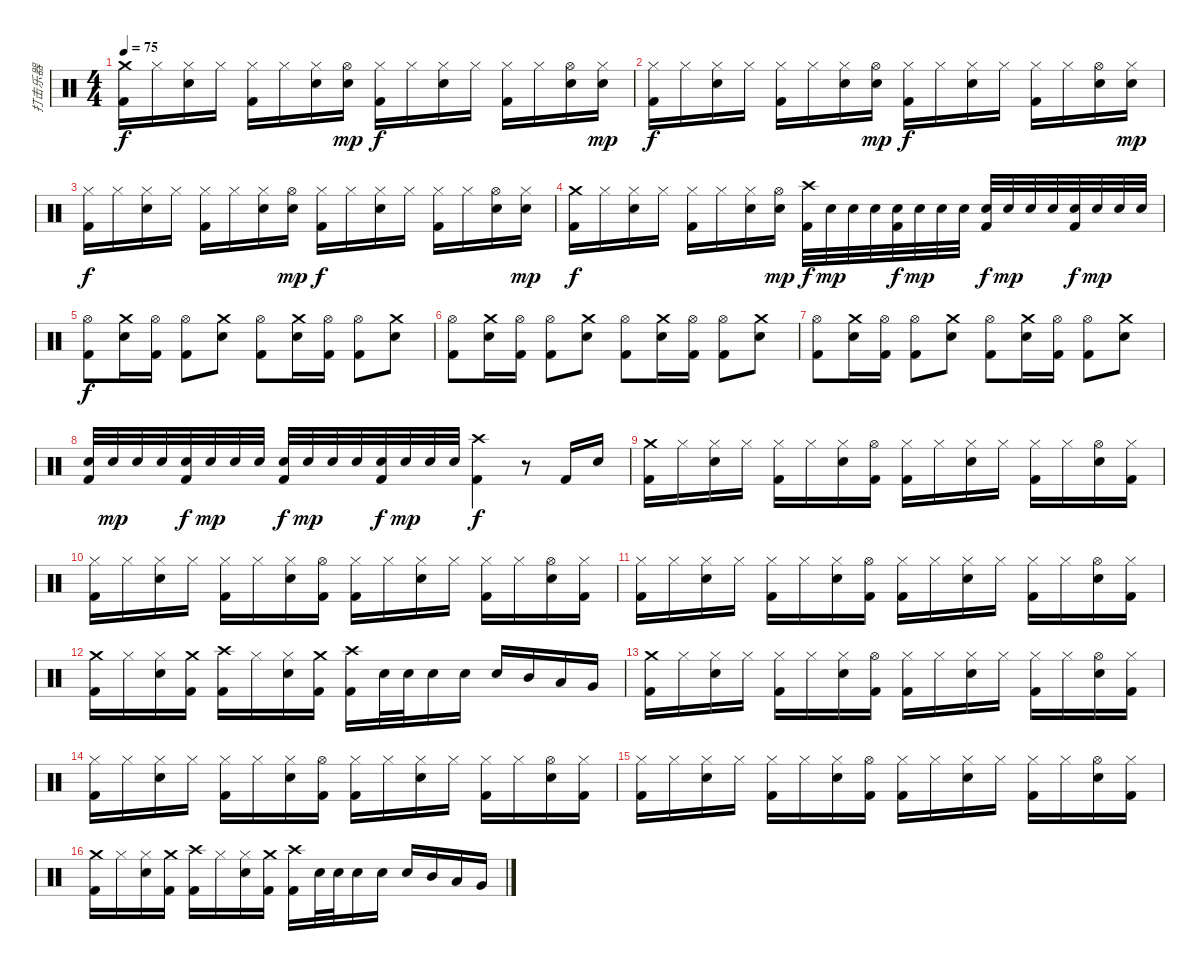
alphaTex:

\track ("打击乐器" "打击乐器") {instrument percussion}
\staff {score}
\articulation defaults
\ts (4 4)
\tempo 75
\clef neutral
\ks c
("Crash medium (hit)" "Kick (hit) 2").16{dy f} "Hi-Hat (closed)".16 ("Hi-Hat (closed)" "Electric Snare (hit)").16 "Hi-Hat (closed)".16 ("Hi-Hat (closed)" "Kick (hit) 2").16 "Hi-Hat (closed)".16 ("Hi-Hat (closed)" "Electric Snare (hit)").16 ("Hi-Hat (open)" "Electric Snare (hit)").16{dy mp} ("Hi-Hat (closed)" "Kick (hit) 2").16{dy f} "Hi-Hat (closed)".16 ("Hi-Hat (closed)" "Electric Snare (hit)").16 "Hi-Hat (closed)".16 ("Hi-Hat (closed)" "Kick (hit) 2").16 "Hi-Hat (closed)".16 ("Hi-Hat (open)" "Electric Snare (hit)").16 ("Hi-Hat (closed)" "Electric Snare (hit)").16{dy mp} |
("Hi-Hat (closed)" "Kick (hit) 2").16{dy f} "Hi-Hat (closed)".16 ("Hi-Hat (closed)" "Electric Snare (hit)").16 "Hi-Hat (closed)".16 ("Hi-Hat (closed)" "Kick (hit) 2").16 "Hi-Hat (closed)".16 ("Hi-Hat (closed)" "Electric Snare (hit)").16 ("Hi-Hat (open)" "Electric Snare (hit)").16{dy mp} ("Hi-Hat (closed)" "Kick (hit) 2").16{dy f} "Hi-Hat (closed)".16 ("Hi-Hat (closed)" "Electric Snare (hit)").16 "Hi-Hat (closed)".16 ("Hi-Hat (closed)" "Kick (hit) 2").16 "Hi-Hat (closed)".16 ("Hi-Hat (open)" "Electric Snare (hit)").16 ("Hi-Hat (closed)" "Electric Snare (hit)").16{dy mp} |
("Hi-Hat (closed)" "Kick (hit) 2").16{dy f} "Hi-Hat (closed)".16 ("Hi-Hat (closed)" "Electric Snare (hit)").16 "Hi-Hat (closed)".16 ("Hi-Hat (closed)" "Kick (hit) 2").16 "Hi-Hat (closed)".16 ("Hi-Hat (closed)" "Electric Snare (hit)").16 ("Hi-Hat (open)" "Electric Snare (hit)").16{dy mp} ("Hi-Hat (closed)" "Kick (hit) 2").16{dy f} "Hi-Hat (closed)".16 ("Hi-Hat (closed)" "Electric Snare (hit)").16 "Hi-Hat (closed)".16 ("Hi-Hat (closed)" "Kick (hit) 2").16 "Hi-Hat (closed)".16 ("Hi-Hat (open)" "Electric Snare (hit)").16 ("Hi-Hat (closed)" "Electric Snare (hit)").16{dy mp} |
("Crash medium (hit)" "Kick (hit) 2").16{dy f} "Hi-Hat (closed)".16 ("Hi-Hat (closed)" "Electric Snare (hit)").16 "Hi-Hat (closed)".16 ("Hi-Hat (closed)" "Kick (hit) 2").16 "Hi-Hat (closed)".16 ("Hi-Hat (closed)" "Electric Snare (hit)").16 ("Hi-Hat (open)" "Electric Snare (hit)").16{dy mp} ("Crash high (hit)" "Kick (hit) 2").32{dy f} "Electric Snare (hit)".32{dy mp} "Electric Snare (hit)".32 "Electric Snare (hit)".32 ("Electric Snare (hit)" "Kick (hit) 2").32{dy f} "Electric Snare (hit)".32{dy mp} "Electric Snare (hit)".32 "Electric Snare (hit)".32 ("Electric Snare (hit)" "Kick (hit) 2").32{dy f} "Electric Snare (hit)".32{dy mp} "Electric Snare (hit)".32 "Electric Snare (hit)".32 ("Electric Snare (hit)" "Kick (hit) 2").32{dy f} "Electric Snare (hit)".32{dy mp} "Electric Snare (hit)".32 "Electric Snare (hit)".32 |
("Hi-Hat (open)" "Kick (hit) 2").8{dy f} ("Crash medium (hit)" "Electric Snare (hit)").16 ("Hi-Hat (open)" "Kick (hit) 2").16 ("Hi-Hat (open)" "Kick (hit) 2").8 ("Crash medium (hit)" "Electric Snare (hit)").8 ("Hi-Hat (open)" "Kick (hit) 2").8 ("Crash medium (hit)" "Electric Snare (hit)").16 ("Hi-Hat (open)" "Kick (hit) 2").16 ("Hi-Hat (open)" "Kick (hit) 2").8 ("Crash medium (hit)" "Electric Snare (hit)").8 |
("Hi-Hat (open)" "Kick (hit) 2").8 ("Crash medium (hit)" "Electric Snare (hit)").16 ("Hi-Hat (open)" "Kick (hit) 2").16 ("Hi-Hat (open)" "Kick (hit) 2").8 ("Crash medium (hit)" "Electric Snare (hit)").8 ("Hi-Hat (open)" "Kick (hit) 2").8 ("Crash medium (hit)" "Electric Snare (hit)").16 ("Hi-Hat (open)" "Kick (hit) 2").16 ("Hi-Hat (open)" "Kick (hit) 2").8 ("Crash medium (hit)" "Electric Snare (hit)").8 |
("Hi-Hat (open)" "Kick (hit) 2").8 ("Crash medium (hit)" "Electric Snare (hit)").16 ("Hi-Hat (open)" "Kick (hit) 2").16 ("Hi-Hat (open)" "Kick (hit) 2").8 ("Crash medium (hit)" "Electric Snare (hit)").8 ("Hi-Hat (open)" "Kick (hit) 2").8 ("Crash medium (hit)" "Electric Snare (hit)").16 ("Hi-Hat (open)" "Kick (hit) 2").16 ("Hi-Hat (open)" "Kick (hit) 2").8 ("Crash medium (hit)" "Electric Snare (hit)").8 |
("Electric Snare (hit)" "Kick (hit) 2").32 "Electric Snare (hit)".32{dy mp} "Electric Snare (hit)".32 "Electric Snare (hit)".32 ("Electric Snare (hit)" "Kick (hit) 2").32{dy f} "Electric Snare (hit)".32{dy mp} "Electric Snare (hit)".32 "Electric Snare (hit)".32 ("Electric Snare (hit)" "Kick (hit) 2").32{dy f} "Electric Snare (hit)".32{dy mp} "Electric Snare (hit)".32 "Electric Snare (hit)".32 ("Electric Snare (hit)" "Kick (hit) 2").32{dy f} "Electric Snare (hit)".32{dy mp} "Electric Snare (hit)".32 "Electric Snare (hit)".32 ("Crash high (hit)" "Kick (hit) 2").4{dy f} r.8 "Kick (hit) 2".16 "Electric Snare (hit)".16 |
("Crash medium (hit)" "Kick (hit) 2").16 "Hi-Hat (closed)".16 ("Hi-Hat (closed)" "Electric Snare (hit)").16 "Hi-Hat (closed)".16 ("Hi-Hat (closed)" "Kick (hit) 2").16 "Hi-Hat (closed)".16 ("Hi-Hat (closed)" "Electric Snare (hit)").16 ("Hi-Hat (open)" "Kick (hit) 2").16 ("Hi-Hat (closed)" "Kick (hit) 2").16 "Hi-Hat (closed)".16 ("Hi-Hat (closed)" "Electric Snare (hit)").16 "Hi-Hat (closed)".16 ("Hi-Hat (closed)" "Kick (hit) 2").16 "Hi-Hat (closed)".16 ("Hi-Hat (open)" "Electric Snare (hit)").16 ("Hi-Hat (closed)" "Kick (hit) 2").16 |
("Hi-Hat (closed)" "Kick (hit) 2").16 "Hi-Hat (closed)".16 ("Hi-Hat (closed)" "Electric Snare (hit)").16 "Hi-Hat (closed)".16 ("Hi-Hat (closed)" "Kick (hit) 2").16 "Hi-Hat (closed)".16 ("Hi-Hat (closed)" "Electric Snare (hit)").16 ("Hi-Hat (open)" "Kick (hit) 2").16 ("Hi-Hat (closed)" "Kick (hit) 2").16 "Hi-Hat (closed)".16 ("Hi-Hat (closed)" "Electric Snare (hit)").16 "Hi-Hat (closed)".16 ("Hi-Hat (closed)" "Kick (hit) 2").16 "Hi-Hat (closed)".16 ("Hi-Hat (open)" "Electric Snare (hit)").16 ("Hi-Hat (closed)" "Kick (hit) 2").16 |
("Hi-Hat (closed)" "Kick (hit) 2").16 "Hi-Hat (closed)".16 ("Hi-Hat (closed)" "Electric Snare (hit)").16 "Hi-Hat (closed)".16 ("Hi-Hat (closed)" "Kick (hit) 2").16 "Hi-Hat (closed)".16 ("Hi-Hat (closed)" "Electric Snare (hit)").16 ("Hi-Hat (open)" "Kick (hit) 2").16 ("Hi-Hat (closed)" "Kick (hit) 2").16 "Hi-Hat (closed)".16 ("Hi-Hat (closed)" "Electric Snare (hit)").16 "Hi-Hat (closed)".16 ("Hi-Hat (closed)" "Kick (hit) 2").16 "Hi-Hat (closed)".16 ("Hi-Hat (open)" "Electric Snare (hit)").16 ("Hi-Hat (closed)" "Kick (hit) 2").16 |
("Crash medium (hit)" "Kick (hit) 2").16 "Hi-Hat (closed)".16 ("Hi-Hat (closed)" "Electric Snare (hit)").16 ("Crash medium (hit)" "Kick (hit) 2").16 ("Crash high (hit)" "Kick (hit) 2").16 "Hi-Hat (closed)".16 ("Hi-Hat (closed)" "Electric Snare (hit)").16 ("Crash medium (hit)" "Kick (hit) 2").16 ("Crash high (hit)" "Kick (hit) 2").16 "Electric Snare (hit)".32 "Electric Snare (hit)".32 "Electric Snare (hit)".16 "Electric Snare (hit)".16 "Electric Snare (hit)".16 "Mid Tom (hit)".16 "Low Tom (hit)".16 "Very Low Tom (hit)".16 |
("Crash medium (hit)" "Kick (hit) 2").16 "Hi-Hat (closed)".16 ("Hi-Hat (closed)" "Electric Snare (hit)").16 "Hi-Hat (closed)".16 ("Hi-Hat (closed)" "Kick (hit) 2").16 "Hi-Hat (closed)".16 ("Hi-Hat (closed)" "Electric Snare (hit)").16 ("Hi-Hat (open)" "Kick (hit) 2").16 ("Hi-Hat (closed)" "Kick (hit) 2").16 "Hi-Hat (closed)".16 ("Hi-Hat (closed)" "Electric Snare (hit)").16 "Hi-Hat (closed)".16 ("Hi-Hat (closed)" "Kick (hit) 2").16 "Hi-Hat (closed)".16 ("Hi-Hat (open)" "Electric Snare (hit)").16 ("Hi-Hat (closed)" "Kick (hit) 2").16 |
("Hi-Hat (closed)" "Kick (hit) 2").16 "Hi-Hat (closed)".16 ("Hi-Hat (closed)" "Electric Snare (hit)").16 "Hi-Hat (closed)".16 ("Hi-Hat (closed)" "Kick (hit) 2").16 "Hi-Hat (closed)".16 ("Hi-Hat (closed)" "Electric Snare (hit)").16 ("Hi-Hat (open)" "Kick (hit) 2").16 ("Hi-Hat (closed)" "Kick (hit) 2").16 "Hi-Hat (closed)".16 ("Hi-Hat (closed)" "Electric Snare (hit)").16 "Hi-Hat (closed)".16 ("Hi-Hat (closed)" "Kick (hit) 2").16 "Hi-Hat (closed)".16 ("Hi-Hat (open)" "Electric Snare (hit)").16 ("Hi-Hat (closed)" "Kick (hit) 2").16 |
("Hi-Hat (closed)" "Kick (hit) 2").16 "Hi-Hat (closed)".16 ("Hi-Hat (closed)" "Electric Snare (hit)").16 "Hi-Hat (closed)".16 ("Hi-Hat (closed)" "Kick (hit) 2").16 "Hi-Hat (closed)".16 ("Hi-Hat (closed)" "Electric Snare (hit)").16 ("Hi-Hat (open)" "Kick (hit) 2").16 ("Hi-Hat (closed)" "Kick (hit) 2").16 "Hi-Hat (closed)".16 ("Hi-Hat (closed)" "Electric Snare (hit)").16 "Hi-Hat (closed)".16 ("Hi-Hat (closed)" "Kick (hit) 2").16 "Hi-Hat (closed)".16 ("Hi-Hat (open)" "Electric Snare (hit)").16 ("Hi-Hat (closed)" "Kick (hit) 2").16 |
("Crash medium (hit)" "Kick (hit) 2").16 "Hi-Hat (closed)".16 ("Hi-Hat (closed)" "Electric Snare (hit)").16 ("Crash medium (hit)" "Kick (hit) 2").16 ("Crash high (hit)" "Kick (hit) 2").16 "Hi-Hat (closed)".16 ("Hi-Hat (closed)" "Electric Snare (hit)").16 ("Crash medium (hit)" "Kick (hit) 2").16 ("Crash high (hit)" "Kick (hit) 2").16 "Electric Snare (hit)".32 "Electric Snare (hit)".32 "Electric Snare (hit)".16 "Electric Snare (hit)".16 "Electric Snare (hit)".16 "Mid Tom (hit)".16 "Low Tom (hit)".16 "Very Low Tom (hit)".16
